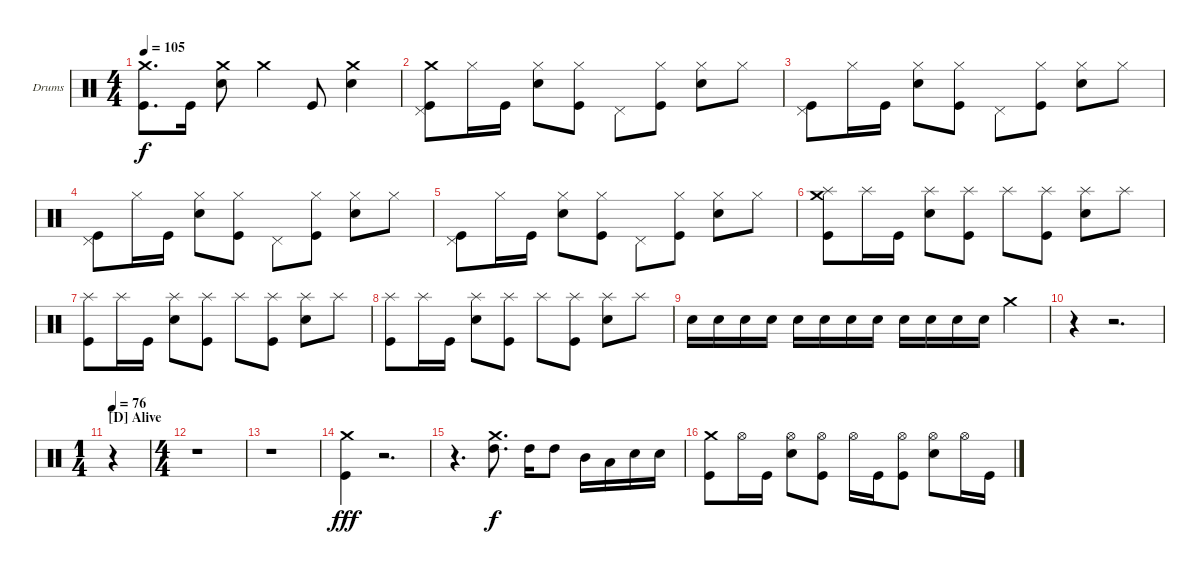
\defaultSystemsLayout 4
\bracketExtendMode nobrackets
\firstSystemTrackNameOrientation horizontal
\otherSystemsTrackNameOrientation horizontal
\track ("Dave Krusen" "Drums") {instrument percussion}
\staff {score}
\articulation defaults
\ts (4 4)
\tempo 105
\clef neutral
\ks c
("Crash medium (hit)" "Kick (hit)").8{d dy f} "Kick (hit)".16 ("Crash medium (hit)" "Snare (hit) 2").8 "Crash medium (hit)".4 "Kick (hit)".8 ("Crash medium (hit)" "Snare (hit) 2").4 |
("Crash medium (hit)" "Kick (hit)" "Pedal Hi-Hat (hit)").8 "Hi-Hat (closed)".16 "Kick (hit)".16 ("Snare (hit) 2" "Hi-Hat (closed)").8 ("Kick (hit)" "Hi-Hat (closed)").8 "Pedal Hi-Hat (hit)".8 ("Kick (hit)" "Hi-Hat (closed)").8 ("Snare (hit) 2" "Hi-Hat (closed)").8 "Hi-Hat (closed)".8 |
("Kick (hit)" "Pedal Hi-Hat (hit)").8 "Hi-Hat (closed)".16 "Kick (hit)".16 ("Snare (hit) 2" "Hi-Hat (closed)").8 ("Kick (hit)" "Hi-Hat (closed)").8 "Pedal Hi-Hat (hit)".8 ("Kick (hit)" "Hi-Hat (closed)").8 ("Snare (hit) 2" "Hi-Hat (closed)").8 "Hi-Hat (closed)".8 |
("Kick (hit)" "Pedal Hi-Hat (hit)").8 "Hi-Hat (closed)".16 "Kick (hit)".16 ("Snare (hit) 2" "Hi-Hat (closed)").8 ("Kick (hit)" "Hi-Hat (closed)").8 "Pedal Hi-Hat (hit)".8 ("Kick (hit)" "Hi-Hat (closed)").8 ("Snare (hit) 2" "Hi-Hat (closed)").8 "Hi-Hat (closed)".8 |
("Kick (hit)" "Pedal Hi-Hat (hit)").8 "Hi-Hat (closed)".16 "Kick (hit)".16 ("Snare (hit) 2" "Hi-Hat (closed)").8 ("Kick (hit)" "Hi-Hat (closed)").8 "Pedal Hi-Hat (hit)".8 ("Kick (hit)" "Hi-Hat (closed)").8 ("Snare (hit) 2" "Hi-Hat (closed)").8 "Hi-Hat (closed)".8 |
("Crash medium (hit)" "Kick (hit)" "Splash (hit)").8 "Splash (hit)".16 "Kick (hit)".16 ("Snare (hit) 2" "Splash (hit)").8 ("Kick (hit)" "Splash (hit)").8 "Splash (hit)".8 ("Kick (hit)" "Splash (hit)").8 ("Snare (hit) 2" "Splash (hit)").8 "Splash (hit)".8 |
("Kick (hit)" "Splash (hit)").8 "Splash (hit)".16 "Kick (hit)".16 ("Snare (hit) 2" "Splash (hit)").8 ("Kick (hit)" "Splash (hit)").8 "Splash (hit)".8 ("Kick (hit)" "Splash (hit)").8 ("Snare (hit) 2" "Splash (hit)").8 "Splash (hit)".8 |
("Kick (hit)" "Splash (hit)").8 "Splash (hit)".16 "Kick (hit)".16 ("Snare (hit) 2" "Splash (hit)").8 ("Kick (hit)" "Splash (hit)").8 "Splash (hit)".8 ("Kick (hit)" "Splash (hit)").8 ("Snare (hit) 2" "Splash (hit)").8 "Splash (hit)".8 |
"Snare (hit) 2".16 "Snare (hit) 2".16 "Snare (hit) 2".16 "Snare (hit) 2".16 "Snare (hit) 2".16 "Snare (hit) 2".16 "Snare (hit) 2".16 "Snare (hit) 2".16 "Snare (hit) 2".16 "Snare (hit) 2".16 "Snare (hit) 2".16 "Snare (hit) 2".16 "Crash medium (hit)".4 |
r.4 r.2{d} |
\ts (1 4)
\section ("D" "Alive")
\tempo 76
r.4 |
\ts (4 4)
r.1 |
r.1 |
("Kick (hit)" "Crash medium (hit)").4{dy fff} r.2{d} |
r.4{d} ("High Tom (hit)" "Crash medium (hit)").8{d dy f} "High Tom (hit)".16 "High Tom (hit)".8 "Mid Tom (hit)".16 "Low Tom (hit)".16 "Snare (hit) 2".16 "Snare (hit) 2".16 |
("Crash medium (hit)" "Kick (hit)").8 "Hi-Hat (open)".16 "Kick (hit)".16 ("Hi-Hat (open)" "Snare (hit) 2").8 ("Hi-Hat (open)" "Kick (hit)").8 "Hi-Hat (open)".16 "Kick (hit)".16 ("Hi-Hat (open)" "Kick (hit)").8 ("Hi-Hat (open)" "Snare (hit) 2").8 "Hi-Hat (open)".16 "Kick (hit)".16
